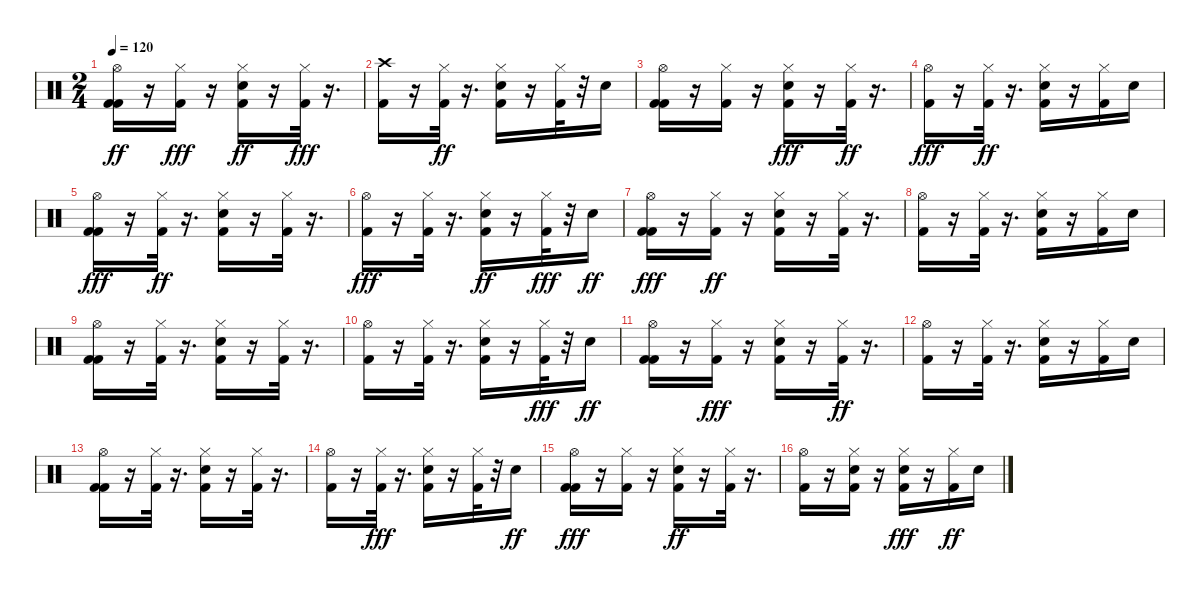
\track "" {instrument percussion}
\staff {score}
\articulation defaults
\ts (2 4)
\tempo 120
\clef neutral
\ks c
("Kick (hit) 2" "Hi-Hat (open)" "Kick (hit) 2").16{dy ff} r.16 ("Kick (hit) 2" "Hi-Hat (closed)").16{dy fff} r.16 ("Snare (hit) 2" "Hi-Hat (closed)" "Kick (hit) 2").16{dy ff} r.16 ("Kick (hit) 2" "Hi-Hat (closed)").32{dy fff} r.16{d} |
("Kick (hit) 2" "Crash high (hit)").16 r.16 ("Hi-Hat (closed)" "Kick (hit) 2").32{dy ff} r.16{d} ("Hi-Hat (closed)" "Kick (hit) 2" "Snare (hit) 2").16 r.16 ("Hi-Hat (closed)" "Kick (hit) 2").32 r.32 "Snare (hit) 2".16 |
("Kick (hit) 2" "Hi-Hat (open)" "Kick (hit) 2").16 r.16 ("Hi-Hat (closed)" "Kick (hit) 2").16 r.16 ("Snare (hit) 2" "Kick (hit) 2" "Hi-Hat (closed)").16{dy fff} r.16 ("Hi-Hat (closed)" "Kick (hit) 2").32{dy ff} r.16{d} |
("Kick (hit) 2" "Hi-Hat (open)").16{dy fff} r.16 ("Hi-Hat (closed)" "Kick (hit) 2").32{dy ff} r.16{d} ("Kick (hit) 2" "Hi-Hat (closed)" "Snare (hit) 2").16 r.16 ("Hi-Hat (closed)" "Kick (hit) 2").16 "Snare (hit) 2".16 |
("Kick (hit) 2" "Kick (hit) 2" "Hi-Hat (open)").16{dy fff} r.16 ("Hi-Hat (closed)" "Kick (hit) 2").32{dy ff} r.16{d} ("Kick (hit) 2" "Hi-Hat (closed)" "Snare (hit) 2").16 r.16 ("Hi-Hat (closed)" "Kick (hit) 2").32 r.16{d} |
("Kick (hit) 2" "Hi-Hat (open)").16{dy fff} r.16 ("Kick (hit) 2" "Hi-Hat (closed)").32 r.16{d} ("Snare (hit) 2" "Hi-Hat (closed)" "Kick (hit) 2").16{dy ff} r.16 ("Kick (hit) 2" "Hi-Hat (closed)").32{dy fff} r.32 "Snare (hit) 2".16{dy ff} |
("Kick (hit) 2" "Kick (hit) 2" "Hi-Hat (open)").16{dy fff} r.16 ("Hi-Hat (closed)" "Kick (hit) 2").16{dy ff} r.16 ("Kick (hit) 2" "Hi-Hat (closed)" "Snare (hit) 2").16 r.16 ("Hi-Hat (closed)" "Kick (hit) 2").32 r.16{d} |
("Hi-Hat (open)" "Kick (hit) 2").16 r.16 ("Hi-Hat (closed)" "Kick (hit) 2").32 r.16{d} ("Kick (hit) 2" "Hi-Hat (closed)" "Snare (hit) 2").16 r.16 ("Hi-Hat (closed)" "Kick (hit) 2").16 "Snare (hit) 2".16 |
("Hi-Hat (open)" "Kick (hit) 2" "Kick (hit) 2").16 r.16 ("Hi-Hat (closed)" "Kick (hit) 2").32 r.16{d} ("Hi-Hat (closed)" "Snare (hit) 2" "Kick (hit) 2").16 r.16 ("Hi-Hat (closed)" "Kick (hit) 2").32 r.16{d} |
("Hi-Hat (open)" "Kick (hit) 2").16 r.16 ("Hi-Hat (closed)" "Kick (hit) 2").32 r.16{d} ("Snare (hit) 2" "Hi-Hat (closed)" "Kick (hit) 2").16 r.16 ("Kick (hit) 2" "Hi-Hat (closed)").32{dy fff} r.32 "Snare (hit) 2".16{dy ff} |
("Hi-Hat (open)" "Kick (hit) 2" "Kick (hit) 2").16 r.16 ("Kick (hit) 2" "Hi-Hat (closed)").16{dy fff} r.16 ("Kick (hit) 2" "Snare (hit) 2" "Hi-Hat (closed)").16 r.16 ("Hi-Hat (closed)" "Kick (hit) 2").32{dy ff} r.16{d} |
("Hi-Hat (open)" "Kick (hit) 2").16 r.16 ("Hi-Hat (closed)" "Kick (hit) 2").32 r.16{d} ("Snare (hit) 2" "Hi-Hat (closed)" "Kick (hit) 2").16 r.16 ("Hi-Hat (closed)" "Kick (hit) 2").16 "Snare (hit) 2".16 |
("Hi-Hat (open)" "Kick (hit) 2" "Kick (hit) 2").16 r.16 ("Hi-Hat (closed)" "Kick (hit) 2").32 r.16{d} ("Snare (hit) 2" "Hi-Hat (closed)" "Kick (hit) 2").16 r.16 ("Hi-Hat (closed)" "Kick (hit) 2").32 r.16{d} |
("Hi-Hat (open)" "Kick (hit) 2").16 r.16 ("Kick (hit) 2" "Hi-Hat (closed)").32{dy fff} r.16{d} ("Kick (hit) 2" "Snare (hit) 2" "Hi-Hat (closed)").16 r.16 ("Kick (hit) 2" "Hi-Hat (closed)").32 r.32 "Snare (hit) 2".16{dy ff} |
("Kick (hit) 2" "Kick (hit) 2" "Hi-Hat (open)").16{dy fff} r.16 ("Kick (hit) 2" "Hi-Hat (closed)").16 r.16 ("Hi-Hat (closed)" "Kick (hit) 2" "Snare (hit) 2").16{dy ff} r.16 ("Hi-Hat (closed)" "Kick (hit) 2").32 r.16{d} |
("Hi-Hat (open)" "Kick (hit) 2").16 r.16 ("Snare (hit) 2" "Hi-Hat (closed)" "Kick (hit) 2").16 r.16 ("Snare (hit) 2" "Kick (hit) 2" "Hi-Hat (closed)").16{dy fff} r.16 ("Hi-Hat (closed)" "Kick (hit) 2").16{dy ff} "Snare (hit) 2".16
